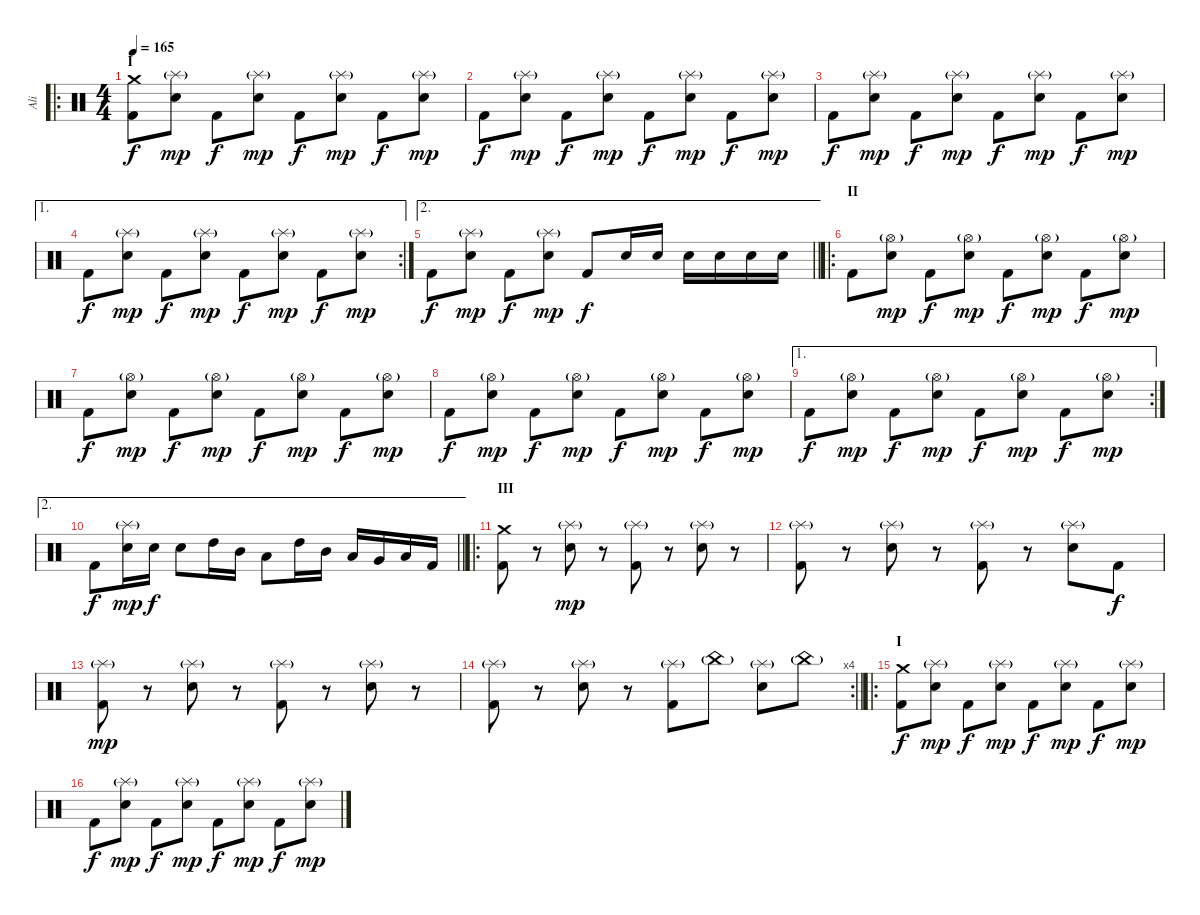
\track ("Ali" "Ali") {instrument percussion}
\staff {score}
\articulation defaults
\ro
\ts (4 4)
\section ("" "I")
\tempo 165
\clef neutral
\ks c
("Kick (hit) 2" "Crash medium (hit)").8{dy f} ("Snare (hit) 2" "Splash (hit)"{g}).8{dy mp} "Kick (hit) 2".8{dy f} ("Snare (hit) 2" "Splash (hit)"{g}).8{dy mp} "Kick (hit) 2".8{dy f} ("Snare (hit) 2" "Splash (hit)"{g}).8{dy mp} "Kick (hit) 2".8{dy f} ("Snare (hit) 2" "Splash (hit)"{g}).8{dy mp} |
"Kick (hit) 2".8{dy f} ("Snare (hit) 2" "Splash (hit)"{g}).8{dy mp} "Kick (hit) 2".8{dy f} ("Snare (hit) 2" "Splash (hit)"{g}).8{dy mp} "Kick (hit) 2".8{dy f} ("Snare (hit) 2" "Splash (hit)"{g}).8{dy mp} "Kick (hit) 2".8{dy f} ("Snare (hit) 2" "Splash (hit)"{g}).8{dy mp} |
"Kick (hit) 2".8{dy f} ("Snare (hit) 2" "Splash (hit)"{g}).8{dy mp} "Kick (hit) 2".8{dy f} ("Snare (hit) 2" "Splash (hit)"{g}).8{dy mp} "Kick (hit) 2".8{dy f} ("Snare (hit) 2" "Splash (hit)"{g}).8{dy mp} "Kick (hit) 2".8{dy f} ("Snare (hit) 2" "Splash (hit)"{g}).8{dy mp} |
\ae 1
\rc 2 "Kick (hit) 2".8{dy f}
("Snare (hit) 2" "Splash (hit)"{g}).8{dy mp} "Kick (hit) 2".8{dy f} ("Snare (hit) 2" "Splash (hit)"{g}).8{dy mp} "Kick (hit) 2".8{dy f} ("Snare (hit) 2" "Splash (hit)"{g}).8{dy mp} "Kick (hit) 2".8{dy f} ("Snare (hit) 2" "Splash (hit)"{g}).8{dy mp} |
\ae 2
\barLineRight lightlight "Kick (hit) 2".8{dy f}
("Snare (hit) 2" "Splash (hit)"{g}).8{dy mp} "Kick (hit) 2".8{dy f} ("Snare (hit) 2" "Splash (hit)"{g}).8{dy mp} "Kick (hit) 2".8{dy f} "Snare (hit) 2".16 "Snare (hit) 2".16 "Snare (hit) 2".16 "Snare (hit) 2".16 "Snare (hit) 2".16 "Snare (hit) 2".16 |
\ro
\section ("" "II")
"Kick (hit) 2".8 ("Snare (hit) 2" "Hi-Hat (open)"{g}).8{dy mp} "Kick (hit) 2".8{dy f} ("Snare (hit) 2" "Hi-Hat (open)"{g}).8{dy mp} "Kick (hit) 2".8{dy f} ("Snare (hit) 2" "Hi-Hat (open)"{g}).8{dy mp} "Kick (hit) 2".8{dy f} ("Snare (hit) 2" "Hi-Hat (open)"{g}).8{dy mp} |
"Kick (hit) 2".8{dy f} ("Snare (hit) 2" "Hi-Hat (open)"{g}).8{dy mp} "Kick (hit) 2".8{dy f} ("Snare (hit) 2" "Hi-Hat (open)"{g}).8{dy mp} "Kick (hit) 2".8{dy f} ("Snare (hit) 2" "Hi-Hat (open)"{g}).8{dy mp} "Kick (hit) 2".8{dy f} ("Snare (hit) 2" "Hi-Hat (open)"{g}).8{dy mp} |
"Kick (hit) 2".8{dy f} ("Snare (hit) 2" "Hi-Hat (open)"{g}).8{dy mp} "Kick (hit) 2".8{dy f} ("Snare (hit) 2" "Hi-Hat (open)"{g}).8{dy mp} "Kick (hit) 2".8{dy f} ("Snare (hit) 2" "Hi-Hat (open)"{g}).8{dy mp} "Kick (hit) 2".8{dy f} ("Snare (hit) 2" "Hi-Hat (open)"{g}).8{dy mp} |
\ae 1
\rc 2 "Kick (hit) 2".8{dy f}
("Snare (hit) 2" "Hi-Hat (open)"{g}).8{dy mp} "Kick (hit) 2".8{dy f} ("Snare (hit) 2" "Hi-Hat (open)"{g}).8{dy mp} "Kick (hit) 2".8{dy f} ("Snare (hit) 2" "Hi-Hat (open)"{g}).8{dy mp} "Kick (hit) 2".8{dy f} ("Snare (hit) 2" "Hi-Hat (open)"{g}).8{dy mp} |
\ae 2
\barLineRight lightlight "Kick (hit) 2".8{dy f}
("Snare (hit) 2" "Splash (hit)"{g}).16{dy mp} "Snare (hit) 2".16{dy f} "Snare (hit) 2".8 "High Tom (hit)".16 "Mid Tom (hit)".16 "Low Tom (hit)".8 "High Tom (hit)".16 "Mid Tom (hit)".16 "Low Tom (hit)".16 "Very Low Tom (hit)".16 "Low Floor Tom (hit)".16 "Kick (hit) 2".16 |
\ro
\section ("" "III")
("Kick (hit) 2" "Crash medium (hit)").8 r.8 ("Electric Snare (hit)" "Splash (hit)"{g}).8{dy mp} r.8 ("Kick (hit) 2" "Splash (hit)"{g}).8 r.8 ("Electric Snare (hit)" "Splash (hit)"{g}).8 r.8 |
("Kick (hit) 2" "Splash (hit)"{g}).8 r.8 ("Electric Snare (hit)" "Splash (hit)"{g}).8 r.8 ("Kick (hit) 2" "Splash (hit)"{g}).8 r.8 ("Electric Snare (hit)" "Splash (hit)"{g}).8 "Kick (hit) 2".8{dy f} |
("Kick (hit) 2" "Splash (hit)"{g}).8{dy mp} r.8 ("Electric Snare (hit)" "Splash (hit)"{g}).8 r.8 ("Kick (hit) 2" "Splash (hit)"{g}).8 r.8 ("Electric Snare (hit)" "Splash (hit)"{g}).8 r.8 |
\rc 4
\barLineRight lightlight
("Kick (hit) 2" "Splash (hit)"{g}).8 r.8 ("Electric Snare (hit)" "Splash (hit)"{g}).8 r.8 ("Kick (hit) 2" "Splash (hit)"{g}).8 "China (hit)"{g}.8 ("Electric Snare (hit)" "Splash (hit)"{g}).8 "China (hit)"{g}.8 |
\ro
\section ("" "I")
("Kick (hit) 2" "Crash medium (hit)").8{dy f} ("Snare (hit) 2" "Splash (hit)"{g}).8{dy mp} "Kick (hit) 2".8{dy f} ("Snare (hit) 2" "Splash (hit)"{g}).8{dy mp} "Kick (hit) 2".8{dy f} ("Snare (hit) 2" "Splash (hit)"{g}).8{dy mp} "Kick (hit) 2".8{dy f} ("Snare (hit) 2" "Splash (hit)"{g}).8{dy mp} |
"Kick (hit) 2".8{dy f} ("Snare (hit) 2" "Splash (hit)"{g}).8{dy mp} "Kick (hit) 2".8{dy f} ("Snare (hit) 2" "Splash (hit)"{g}).8{dy mp} "Kick (hit) 2".8{dy f} ("Snare (hit) 2" "Splash (hit)"{g}).8{dy mp} "Kick (hit) 2".8{dy f} ("Snare (hit) 2" "Splash (hit)"{g}).8{dy mp}
